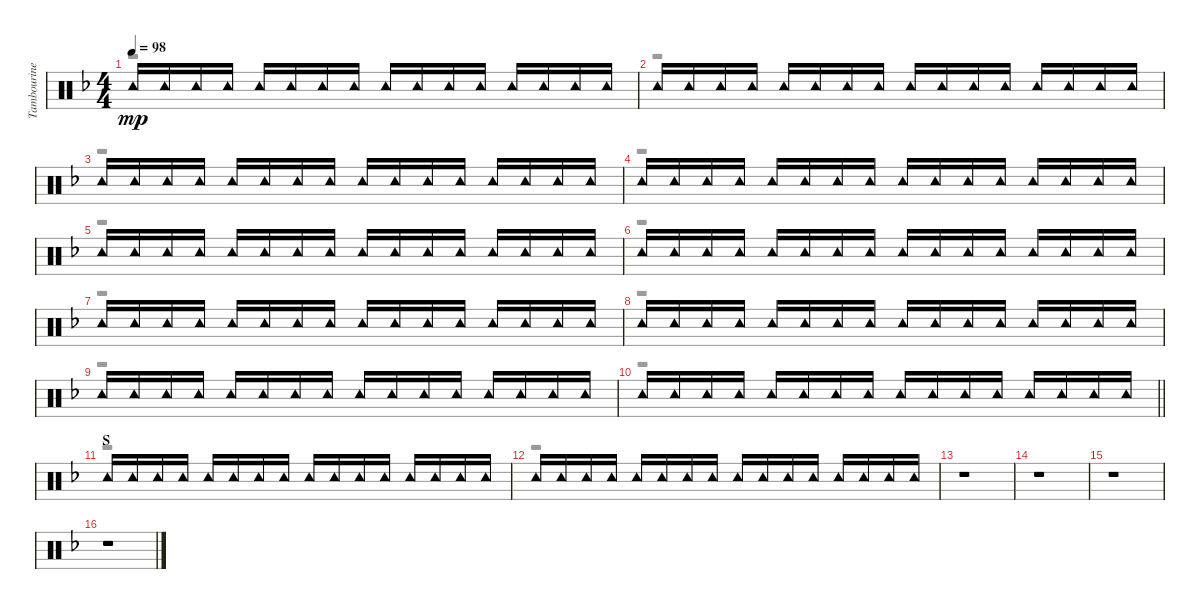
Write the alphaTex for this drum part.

\track ("Tambourine" "Tambourine") {instrument percussion}
\staff {score}
\articulation defaults
\voice
\ts (4 4)
\tempo 98
\clef neutral
\ks f "Tambourine (hit)".16{dy mp} "Tambourine (hit)".16 "Tambourine (hit)".16 "Tambourine (hit)".16 "Tambourine (hit)".16 "Tambourine (hit)".16 "Tambourine (hit)".16 "Tambourine (hit)".16 "Tambourine (hit)".16 "Tambourine (hit)".16 "Tambourine (hit)".16 "Tambourine (hit)".16 "Tambourine (hit)".16 "Tambourine (hit)".16 "Tambourine (hit)".16 "Tambourine (hit)".16
|
"Tambourine (hit)".16 "Tambourine (hit)".16 "Tambourine (hit)".16 "Tambourine (hit)".16 "Tambourine (hit)".16 "Tambourine (hit)".16 "Tambourine (hit)".16 "Tambourine (hit)".16 "Tambourine (hit)".16 "Tambourine (hit)".16 "Tambourine (hit)".16 "Tambourine (hit)".16 "Tambourine (hit)".16 "Tambourine (hit)".16 "Tambourine (hit)".16 "Tambourine (hit)".16 |
"Tambourine (hit)".16 "Tambourine (hit)".16 "Tambourine (hit)".16 "Tambourine (hit)".16 "Tambourine (hit)".16 "Tambourine (hit)".16 "Tambourine (hit)".16 "Tambourine (hit)".16 "Tambourine (hit)".16 "Tambourine (hit)".16 "Tambourine (hit)".16 "Tambourine (hit)".16 "Tambourine (hit)".16 "Tambourine (hit)".16 "Tambourine (hit)".16 "Tambourine (hit)".16 |
"Tambourine (hit)".16 "Tambourine (hit)".16 "Tambourine (hit)".16 "Tambourine (hit)".16 "Tambourine (hit)".16 "Tambourine (hit)".16 "Tambourine (hit)".16 "Tambourine (hit)".16 "Tambourine (hit)".16 "Tambourine (hit)".16 "Tambourine (hit)".16 "Tambourine (hit)".16 "Tambourine (hit)".16 "Tambourine (hit)".16 "Tambourine (hit)".16 "Tambourine (hit)".16 |
"Tambourine (hit)".16 "Tambourine (hit)".16 "Tambourine (hit)".16 "Tambourine (hit)".16 "Tambourine (hit)".16 "Tambourine (hit)".16 "Tambourine (hit)".16 "Tambourine (hit)".16 "Tambourine (hit)".16 "Tambourine (hit)".16 "Tambourine (hit)".16 "Tambourine (hit)".16 "Tambourine (hit)".16 "Tambourine (hit)".16 "Tambourine (hit)".16 "Tambourine (hit)".16 |
"Tambourine (hit)".16 "Tambourine (hit)".16 "Tambourine (hit)".16 "Tambourine (hit)".16 "Tambourine (hit)".16 "Tambourine (hit)".16 "Tambourine (hit)".16 "Tambourine (hit)".16 "Tambourine (hit)".16 "Tambourine (hit)".16 "Tambourine (hit)".16 "Tambourine (hit)".16 "Tambourine (hit)".16 "Tambourine (hit)".16 "Tambourine (hit)".16 "Tambourine (hit)".16 |
"Tambourine (hit)".16 "Tambourine (hit)".16 "Tambourine (hit)".16 "Tambourine (hit)".16 "Tambourine (hit)".16 "Tambourine (hit)".16 "Tambourine (hit)".16 "Tambourine (hit)".16 "Tambourine (hit)".16 "Tambourine (hit)".16 "Tambourine (hit)".16 "Tambourine (hit)".16 "Tambourine (hit)".16 "Tambourine (hit)".16 "Tambourine (hit)".16 "Tambourine (hit)".16 |
"Tambourine (hit)".16 "Tambourine (hit)".16 "Tambourine (hit)".16 "Tambourine (hit)".16 "Tambourine (hit)".16 "Tambourine (hit)".16 "Tambourine (hit)".16 "Tambourine (hit)".16 "Tambourine (hit)".16 "Tambourine (hit)".16 "Tambourine (hit)".16 "Tambourine (hit)".16 "Tambourine (hit)".16 "Tambourine (hit)".16 "Tambourine (hit)".16 "Tambourine (hit)".16 |
"Tambourine (hit)".16 "Tambourine (hit)".16 "Tambourine (hit)".16 "Tambourine (hit)".16 "Tambourine (hit)".16 "Tambourine (hit)".16 "Tambourine (hit)".16 "Tambourine (hit)".16 "Tambourine (hit)".16 "Tambourine (hit)".16 "Tambourine (hit)".16 "Tambourine (hit)".16 "Tambourine (hit)".16 "Tambourine (hit)".16 "Tambourine (hit)".16 "Tambourine (hit)".16 |
\barLineRight lightlight "Tambourine (hit)".16 "Tambourine (hit)".16 "Tambourine (hit)".16 "Tambourine (hit)".16 "Tambourine (hit)".16 "Tambourine (hit)".16 "Tambourine (hit)".16 "Tambourine (hit)".16 "Tambourine (hit)".16 "Tambourine (hit)".16 "Tambourine (hit)".16 "Tambourine (hit)".16 "Tambourine (hit)".16 "Tambourine (hit)".16 "Tambourine (hit)".16 "Tambourine (hit)".16
|
\section ("" "S")
"Tambourine (hit)".16 "Tambourine (hit)".16 "Tambourine (hit)".16 "Tambourine (hit)".16 "Tambourine (hit)".16 "Tambourine (hit)".16 "Tambourine (hit)".16 "Tambourine (hit)".16 "Tambourine (hit)".16 "Tambourine (hit)".16 "Tambourine (hit)".16 "Tambourine (hit)".16 "Tambourine (hit)".16 "Tambourine (hit)".16 "Tambourine (hit)".16 "Tambourine (hit)".16 |
"Tambourine (hit)".16 "Tambourine (hit)".16 "Tambourine (hit)".16 "Tambourine (hit)".16 "Tambourine (hit)".16 "Tambourine (hit)".16 "Tambourine (hit)".16 "Tambourine (hit)".16 "Tambourine (hit)".16 "Tambourine (hit)".16 "Tambourine (hit)".16 "Tambourine (hit)".16 "Tambourine (hit)".16 "Tambourine (hit)".16 "Tambourine (hit)".16 "Tambourine (hit)".16 |
r.1 |
r.1 |
r.1 |
r.1
\voice
\clef neutral
\ottava regular
\simile none
\ks f
r.1{dy f} |
r.1 |
r.1 |
r.1 |
r.1 |
r.1 |
r.1 |
r.1 |
r.1 |
\barLineRight lightlight
r.1 |
r.1 |
r.1 |
r.1 |
r.1 |
r.1 |
r.1
